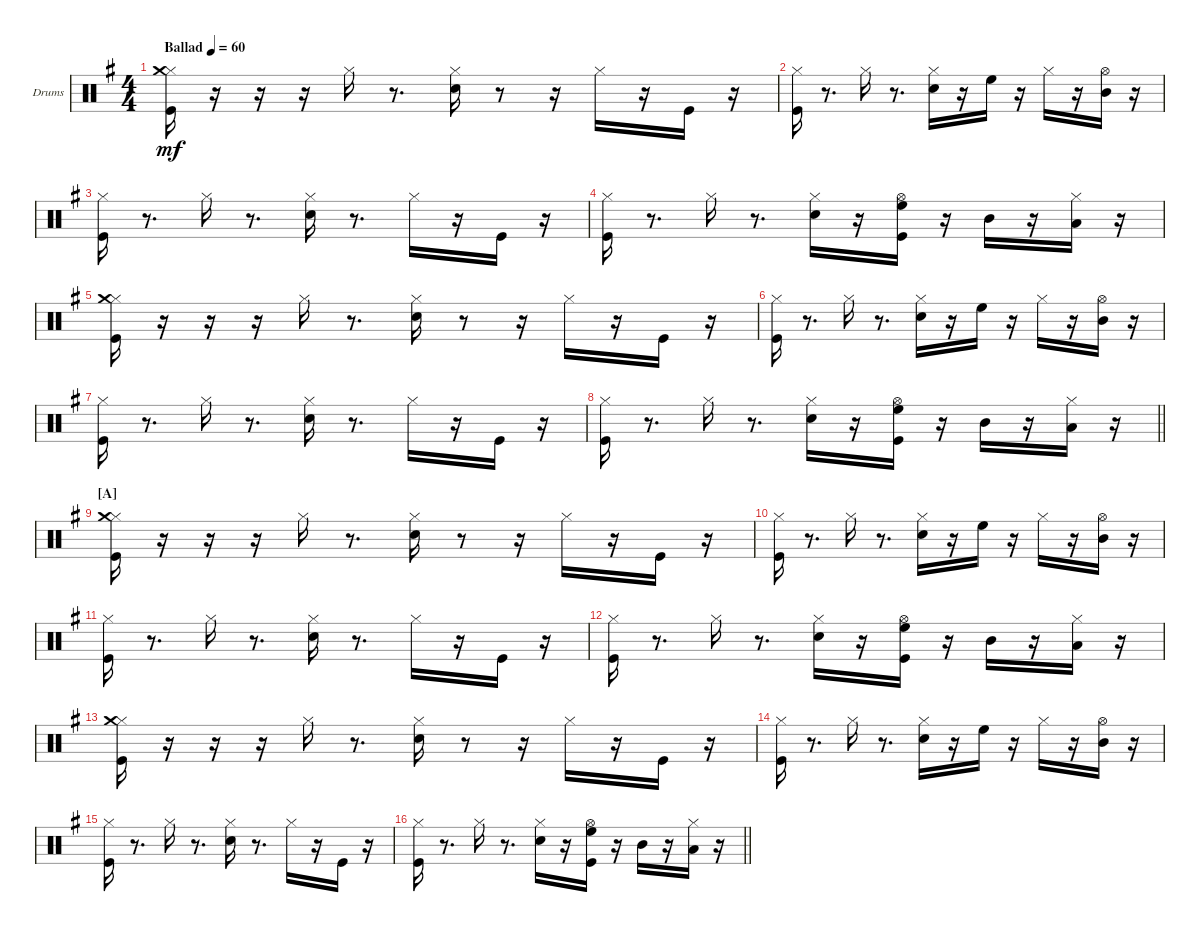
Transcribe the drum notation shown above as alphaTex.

\bracketExtendMode groupsimilarinstruments
\firstSystemTrackNameOrientation horizontal
\otherSystemsTrackNameOrientation horizontal
\track ("Drumkit" "Drums") {instrument percussion}
\staff {score}
\articulation defaults
\ts (4 4)
\beaming (8 2 2 2 2)
\tempo (60 "Ballad")
\clef neutral
\scale
0.502183
\ks g
("Kick (hit)" "Hi-Hat (closed)" "Crash medium (hit)").16{dy mf} r.16 r.16 r.16 "Hi-Hat (closed)".16 r.8{d} ("Hi-Hat (closed)" "Snare (hit) 2").16 r.8 r.16 "Hi-Hat (closed)".16 r.16 "Kick (hit)".16 r.16 |
\scale
0.248908 ("Kick (hit)" "Hi-Hat (closed)").16 r.8{d} "Hi-Hat (closed)".16 r.8{d} ("Hi-Hat (closed)" "Snare (hit) 2").16 r.16 "High Floor Tom (hit)".16 r.16 "Hi-Hat (closed)".16 r.16 ("Hi-Hat (open)" "Mid Tom (hit)").16 r.16 |
\scale
0.248908 ("Kick (hit)" "Hi-Hat (closed)").16 r.8{d} "Hi-Hat (closed)".16 r.8{d} ("Hi-Hat (closed)" "Snare (hit) 2").16 r.8{d} "Hi-Hat (closed)".16 r.16 "Kick (hit)".16 r.16 |
\scale
0.333333 ("Kick (hit)" "Hi-Hat (closed)").16 r.8{d} "Hi-Hat (closed)".16 r.8{d} ("Hi-Hat (closed)" "Snare (hit) 2").16 r.16 ("Kick (hit)" "Hi-Hat (open)" "High Floor Tom (hit)").16 r.16 "Mid Tom (hit)".16 r.16 ("Hi-Hat (closed)" "Low Tom (hit)").16 r.16 |
\scale
0.333333 ("Kick (hit)" "Hi-Hat (closed)" "Crash medium (hit)").16 r.16 r.16 r.16 "Hi-Hat (closed)".16 r.8{d} ("Hi-Hat (closed)" "Snare (hit) 2").16 r.8 r.16 "Hi-Hat (closed)".16 r.16 "Kick (hit)".16 r.16 |
\scale
0.333333 ("Kick (hit)" "Hi-Hat (closed)").16 r.8{d} "Hi-Hat (closed)".16 r.8{d} ("Hi-Hat (closed)" "Snare (hit) 2").16 r.16 "High Floor Tom (hit)".16 r.16 "Hi-Hat (closed)".16 r.16 ("Hi-Hat (open)" "Mid Tom (hit)").16 r.16 |
\scale
0.333333 ("Kick (hit)" "Hi-Hat (closed)").16 r.8{d} "Hi-Hat (closed)".16 r.8{d} ("Hi-Hat (closed)" "Snare (hit) 2").16 r.8{d} "Hi-Hat (closed)".16 r.16 "Kick (hit)".16 r.16 |
\scale
0.333333
\barLineRight lightlight
("Kick (hit)" "Hi-Hat (closed)").16 r.8{d} "Hi-Hat (closed)".16 r.8{d} ("Hi-Hat (closed)" "Snare (hit) 2").16 r.16 ("Kick (hit)" "Hi-Hat (open)" "High Floor Tom (hit)").16 r.16 "Mid Tom (hit)".16 r.16 ("Hi-Hat (closed)" "Low Tom (hit)").16 r.16 |
\section ("A" "")
\scale
0.333333 ("Kick (hit)" "Hi-Hat (closed)" "Crash medium (hit)").16 r.16 r.16 r.16 "Hi-Hat (closed)".16 r.8{d} ("Hi-Hat (closed)" "Snare (hit) 2").16 r.8 r.16 "Hi-Hat (closed)".16 r.16 "Kick (hit)".16 r.16 |
\scale
0.333333 ("Kick (hit)" "Hi-Hat (closed)").16 r.8{d} "Hi-Hat (closed)".16 r.8{d} ("Hi-Hat (closed)" "Snare (hit) 2").16 r.16 "High Floor Tom (hit)".16 r.16 "Hi-Hat (closed)".16 r.16 ("Hi-Hat (open)" "Mid Tom (hit)").16 r.16 |
\scale
0.333333 ("Kick (hit)" "Hi-Hat (closed)").16 r.8{d} "Hi-Hat (closed)".16 r.8{d} ("Hi-Hat (closed)" "Snare (hit) 2").16 r.8{d} "Hi-Hat (closed)".16 r.16 "Kick (hit)".16 r.16 |
\scale
0.333333 ("Kick (hit)" "Hi-Hat (closed)").16 r.8{d} "Hi-Hat (closed)".16 r.8{d} ("Hi-Hat (closed)" "Snare (hit) 2").16 r.16 ("Kick (hit)" "Hi-Hat (open)" "High Floor Tom (hit)").16 r.16 "Mid Tom (hit)".16 r.16 ("Hi-Hat (closed)" "Low Tom (hit)").16 r.16 |
\scale
0.333333 ("Kick (hit)" "Hi-Hat (closed)" "Crash medium (hit)").16 r.16 r.16 r.16 "Hi-Hat (closed)".16 r.8{d} ("Hi-Hat (closed)" "Snare (hit) 2").16 r.8 r.16 "Hi-Hat (closed)".16 r.16 "Kick (hit)".16 r.16 |
\scale
0.333333 ("Kick (hit)" "Hi-Hat (closed)").16 r.8{d} "Hi-Hat (closed)".16 r.8{d} ("Hi-Hat (closed)" "Snare (hit) 2").16 r.16 "High Floor Tom (hit)".16 r.16 "Hi-Hat (closed)".16 r.16 ("Hi-Hat (open)" "Mid Tom (hit)").16 r.16 |
\scale
0.333333 ("Kick (hit)" "Hi-Hat (closed)").16 r.8{d} "Hi-Hat (closed)".16 r.8{d} ("Hi-Hat (closed)" "Snare (hit) 2").16 r.8{d} "Hi-Hat (closed)".16 r.16 "Kick (hit)".16 r.16 |
\scale
0.333333
\barLineRight lightlight
("Kick (hit)" "Hi-Hat (closed)").16 r.8{d} "Hi-Hat (closed)".16 r.8{d} ("Hi-Hat (closed)" "Snare (hit) 2").16 r.16 ("Kick (hit)" "Hi-Hat (open)" "High Floor Tom (hit)").16 r.16 "Mid Tom (hit)".16 r.16 ("Hi-Hat (closed)" "Low Tom (hit)").16 r.16
